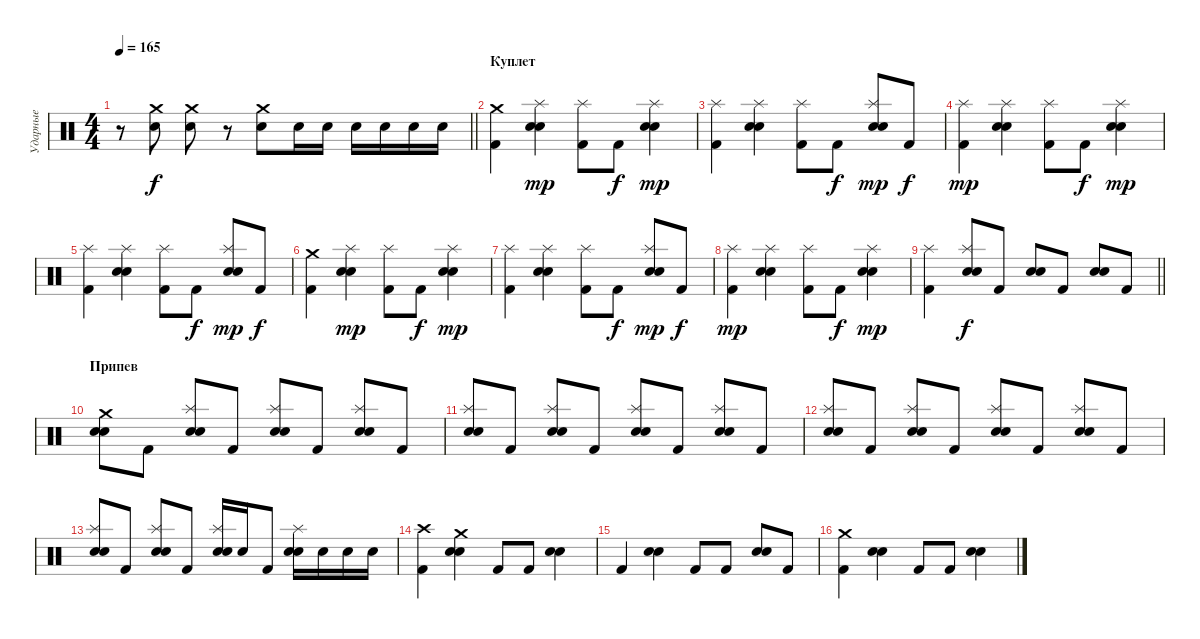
\track ("Ударные" "Ударные") {instrument percussion}
\staff {score}
\articulation defaults
\ts (4 4)
\tempo 165
\clef neutral
\barLineRight lightlight
\ks c
r.8{dy f} ("Crash medium (hit)" "Electric Snare (hit)").8 ("Crash medium (hit)" "Electric Snare (hit)").8 r.8 ("Crash medium (hit)" "Electric Snare (hit)").8 "Electric Snare (hit)".16 "Electric Snare (hit)".16 "Electric Snare (hit)".16 "Electric Snare (hit)".16 "Electric Snare (hit)".16 "Electric Snare (hit)".16 |
\section ("" "Куплет")
("Crash medium (hit)" "Kick (hit) 2").4 ("Splash (hit)" "Electric Snare (hit)" "Snare (hit) 2").4{dy mp} ("Splash (hit)" "Kick (hit) 2").8 "Kick (hit) 2".8{dy f} ("Splash (hit)" "Electric Snare (hit)" "Snare (hit) 2").4{dy mp} |
("Splash (hit)" "Kick (hit) 2").4 ("Splash (hit)" "Electric Snare (hit)" "Snare (hit) 2").4 ("Splash (hit)" "Kick (hit) 2").8 "Kick (hit) 2".8{dy f} ("Splash (hit)" "Electric Snare (hit)" "Snare (hit) 2").8{dy mp} "Kick (hit) 2".8{dy f} |
("Splash (hit)" "Kick (hit) 2").4{dy mp} ("Splash (hit)" "Electric Snare (hit)" "Snare (hit) 2").4 ("Splash (hit)" "Kick (hit) 2").8 "Kick (hit) 2".8{dy f} ("Splash (hit)" "Electric Snare (hit)" "Snare (hit) 2").4{dy mp} |
("Splash (hit)" "Kick (hit) 2").4 ("Splash (hit)" "Electric Snare (hit)" "Snare (hit) 2").4 ("Splash (hit)" "Kick (hit) 2").8 "Kick (hit) 2".8{dy f} ("Splash (hit)" "Electric Snare (hit)" "Snare (hit) 2").8{dy mp} "Kick (hit) 2".8{dy f} |
("Crash medium (hit)" "Kick (hit) 2").4 ("Splash (hit)" "Electric Snare (hit)" "Snare (hit) 2").4{dy mp} ("Splash (hit)" "Kick (hit) 2").8 "Kick (hit) 2".8{dy f} ("Splash (hit)" "Electric Snare (hit)" "Snare (hit) 2").4{dy mp} |
("Splash (hit)" "Kick (hit) 2").4 ("Splash (hit)" "Electric Snare (hit)" "Snare (hit) 2").4 ("Splash (hit)" "Kick (hit) 2").8 "Kick (hit) 2".8{dy f} ("Splash (hit)" "Electric Snare (hit)" "Snare (hit) 2").8{dy mp} "Kick (hit) 2".8{dy f} |
("Splash (hit)" "Kick (hit) 2").4{dy mp} ("Splash (hit)" "Electric Snare (hit)" "Snare (hit) 2").4 ("Splash (hit)" "Kick (hit) 2").8 "Kick (hit) 2".8{dy f} ("Splash (hit)" "Electric Snare (hit)" "Snare (hit) 2").4{dy mp} |
\barLineRight lightlight
("Splash (hit)" "Kick (hit) 2").4 ("Splash (hit)" "Electric Snare (hit)" "Snare (hit) 2").8{dy f} "Kick (hit) 2".8 ("Electric Snare (hit)" "Snare (hit) 2").8 "Kick (hit) 2".8 ("Electric Snare (hit)" "Snare (hit) 2").8 "Kick (hit) 2".8 |
\section ("" "Припев")
("Crash medium (hit)" "Electric Snare (hit)" "Snare (hit) 2").8 "Kick (hit) 2".8 ("Splash (hit)" "Electric Snare (hit)" "Snare (hit) 2").8 "Kick (hit) 2".8 ("Splash (hit)" "Electric Snare (hit)" "Snare (hit) 2").8 "Kick (hit) 2".8 ("Splash (hit)" "Electric Snare (hit)" "Snare (hit) 2").8 "Kick (hit) 2".8 |
("Splash (hit)" "Electric Snare (hit)" "Snare (hit) 2").8 "Kick (hit) 2".8 ("Splash (hit)" "Electric Snare (hit)" "Snare (hit) 2").8 "Kick (hit) 2".8 ("Splash (hit)" "Electric Snare (hit)" "Snare (hit) 2").8 "Kick (hit) 2".8 ("Splash (hit)" "Electric Snare (hit)" "Snare (hit) 2").8 "Kick (hit) 2".8 |
("Splash (hit)" "Electric Snare (hit)" "Snare (hit) 2").8 "Kick (hit) 2".8 ("Splash (hit)" "Electric Snare (hit)" "Snare (hit) 2").8 "Kick (hit) 2".8 ("Splash (hit)" "Electric Snare (hit)" "Snare (hit) 2").8 "Kick (hit) 2".8 ("Splash (hit)" "Electric Snare (hit)" "Snare (hit) 2").8 "Kick (hit) 2".8 |
("Splash (hit)" "Electric Snare (hit)" "Snare (hit) 2").8 "Kick (hit) 2".8 ("Splash (hit)" "Electric Snare (hit)" "Snare (hit) 2").8 "Kick (hit) 2".8 ("Splash (hit)" "Electric Snare (hit)" "Snare (hit) 2").16 "Electric Snare (hit)".16 "Kick (hit) 2".8 ("Splash (hit)" "Electric Snare (hit)" "Snare (hit) 2").16 "Electric Snare (hit)".16 "Electric Snare (hit)".16 "Electric Snare (hit)".16 |
("Crash high (hit)" "Kick (hit) 2").4 ("Crash medium (hit)" "Electric Snare (hit)" "Snare (hit) 2").4 "Kick (hit) 2".8 "Kick (hit) 2".8 ("Electric Snare (hit)" "Snare (hit) 2").4 |
"Kick (hit) 2".4 ("Electric Snare (hit)" "Snare (hit) 2").4 "Kick (hit) 2".8 "Kick (hit) 2".8 ("Electric Snare (hit)" "Snare (hit) 2").8 "Kick (hit) 2".8 |
("Crash medium (hit)" "Kick (hit) 2").4 ("Electric Snare (hit)" "Snare (hit) 2").4 "Kick (hit) 2".8 "Kick (hit) 2".8 ("Electric Snare (hit)" "Snare (hit) 2").4
